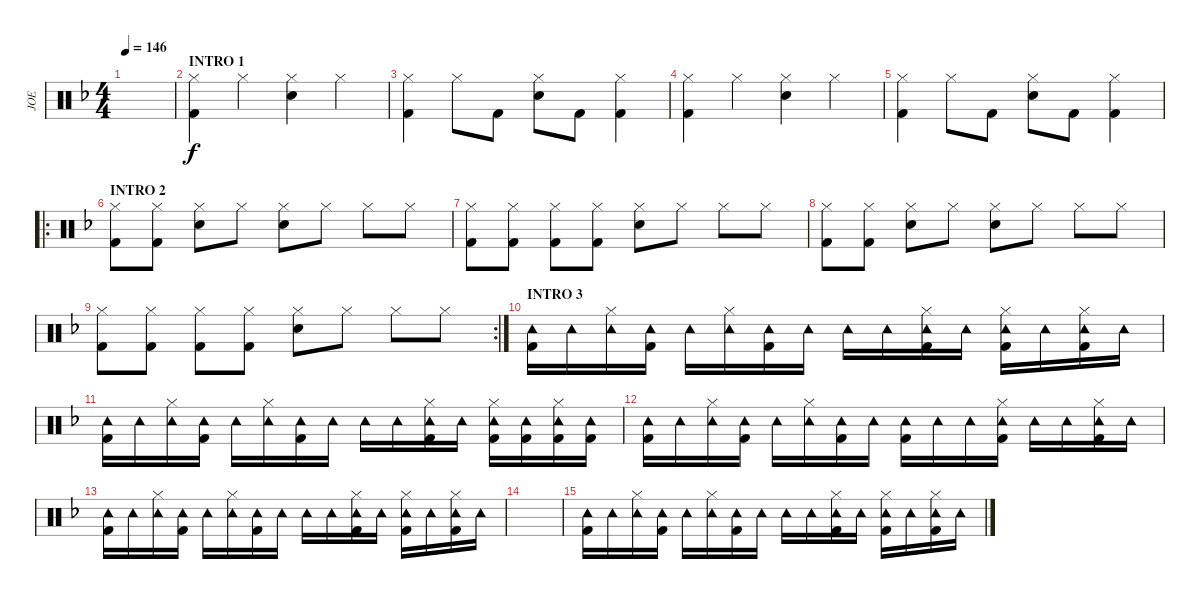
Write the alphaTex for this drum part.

\track ("JOE" "JOE") {instrument percussion}
\staff {score}
\articulation defaults
\ts (4 4)
\tempo 146
\clef neutral
\ks dminor
|
\section ("" "INTRO 1")
("Hi-Hat (closed)" "Kick (hit) 2").4 "Hi-Hat (closed)".4 ("Hi-Hat (closed)" "Snare (hit) 2").4 "Hi-Hat (closed)".4 |
("Hi-Hat (closed)" "Kick (hit) 2").4 "Hi-Hat (closed)".8 "Kick (hit) 2".8 ("Hi-Hat (closed)" "Snare (hit) 2").8 "Kick (hit) 2".8 ("Hi-Hat (closed)" "Kick (hit) 2").4 |
("Hi-Hat (closed)" "Kick (hit) 2").4 "Hi-Hat (closed)".4 ("Hi-Hat (closed)" "Snare (hit) 2").4 "Hi-Hat (closed)".4 |
("Hi-Hat (closed)" "Kick (hit) 2").4 "Hi-Hat (closed)".8 "Kick (hit) 2".8 ("Hi-Hat (closed)" "Snare (hit) 2").8 "Kick (hit) 2".8 ("Hi-Hat (closed)" "Kick (hit) 2").4 |
\ro
\section ("" "INTRO 2")
("Hi-Hat (closed)" "Kick (hit) 2").8 ("Hi-Hat (closed)" "Kick (hit) 2").8 ("Hi-Hat (closed)" "Snare (hit) 2").8 "Hi-Hat (closed)".8 ("Hi-Hat (closed)" "Snare (hit) 2").8 "Hi-Hat (closed)".8 "Hi-Hat (closed)".8 "Hi-Hat (closed)".8 |
("Hi-Hat (closed)" "Kick (hit) 2").8 ("Hi-Hat (closed)" "Kick (hit) 2").8 ("Hi-Hat (closed)" "Kick (hit) 2").8 ("Hi-Hat (closed)" "Kick (hit) 2").8 ("Hi-Hat (closed)" "Snare (hit) 2").8 "Hi-Hat (closed)".8 "Hi-Hat (closed)".8 "Hi-Hat (closed)".8 |
("Hi-Hat (closed)" "Kick (hit) 2").8 ("Hi-Hat (closed)" "Kick (hit) 2").8 ("Hi-Hat (closed)" "Snare (hit) 2").8 "Hi-Hat (closed)".8 ("Hi-Hat (closed)" "Snare (hit) 2").8 "Hi-Hat (closed)".8 "Hi-Hat (closed)".8 "Hi-Hat (closed)".8 |
\rc 2
("Hi-Hat (closed)" "Kick (hit) 2").8 ("Hi-Hat (closed)" "Kick (hit) 2").8 ("Hi-Hat (closed)" "Kick (hit) 2").8 ("Hi-Hat (closed)" "Kick (hit) 2").8 ("Hi-Hat (closed)" "Snare (hit) 2").8 "Hi-Hat (closed)".8 "Hi-Hat (closed)".8 "Hi-Hat (closed)".8 |
\section ("" "INTRO 3")
("Tambourine (hit)" "Kick (hit) 2").16 "Tambourine (hit)".16 ("Hi-Hat (closed)" "Tambourine (hit)").16 ("Tambourine (hit)" "Kick (hit) 2").16 "Tambourine (hit)".16 ("Hi-Hat (closed)" "Tambourine (hit)").16 ("Tambourine (hit)" "Kick (hit) 2").16 "Tambourine (hit)".16 "Tambourine (hit)".16 "Tambourine (hit)".16 ("Hi-Hat (closed)" "Tambourine (hit)" "Kick (hit) 2").16 "Tambourine (hit)".16 ("Hi-Hat (closed)" "Tambourine (hit)" "Kick (hit) 2").16 "Tambourine (hit)".16 ("Hi-Hat (closed)" "Tambourine (hit)" "Kick (hit) 2").16 "Tambourine (hit)".16 |
("Tambourine (hit)" "Kick (hit) 2").16 "Tambourine (hit)".16 ("Hi-Hat (closed)" "Tambourine (hit)").16 ("Tambourine (hit)" "Kick (hit) 2").16 "Tambourine (hit)".16 ("Hi-Hat (closed)" "Tambourine (hit)").16 ("Tambourine (hit)" "Kick (hit) 2").16 "Tambourine (hit)".16 "Tambourine (hit)".16 "Tambourine (hit)".16 ("Hi-Hat (closed)" "Tambourine (hit)" "Kick (hit) 2").16 "Tambourine (hit)".16 ("Hi-Hat (closed)" "Tambourine (hit)" "Kick (hit) 2").16 ("Tambourine (hit)" "Kick (hit) 2").16 ("Hi-Hat (closed)" "Tambourine (hit)" "Kick (hit) 2").16 ("Tambourine (hit)" "Kick (hit) 2").16 |
("Tambourine (hit)" "Kick (hit) 2").16 "Tambourine (hit)".16 ("Hi-Hat (closed)" "Tambourine (hit)").16 ("Tambourine (hit)" "Kick (hit) 2").16 "Tambourine (hit)".16 ("Hi-Hat (closed)" "Tambourine (hit)").16 ("Tambourine (hit)" "Kick (hit) 2").16 "Tambourine (hit)".16 ("Tambourine (hit)" "Kick (hit) 2").16 "Tambourine (hit)".16 "Tambourine (hit)".16 ("Hi-Hat (closed)" "Tambourine (hit)" "Kick (hit) 2").16 "Tambourine (hit)".16 "Tambourine (hit)".16 ("Hi-Hat (closed)" "Tambourine (hit)" "Kick (hit) 2").16 "Tambourine (hit)".16 |
("Tambourine (hit)" "Kick (hit) 2").16 "Tambourine (hit)".16 ("Hi-Hat (closed)" "Tambourine (hit)").16 ("Tambourine (hit)" "Kick (hit) 2").16 "Tambourine (hit)".16 ("Hi-Hat (closed)" "Tambourine (hit)").16 ("Tambourine (hit)" "Kick (hit) 2").16 "Tambourine (hit)".16 "Tambourine (hit)".16 "Tambourine (hit)".16 ("Hi-Hat (closed)" "Tambourine (hit)" "Kick (hit) 2").16 "Tambourine (hit)".16 ("Hi-Hat (closed)" "Tambourine (hit)" "Kick (hit) 2").16 "Tambourine (hit)".16 ("Hi-Hat (closed)" "Tambourine (hit)" "Kick (hit) 2").16 "Tambourine (hit)".16 |
|
("Tambourine (hit)" "Kick (hit) 2").16 "Tambourine (hit)".16 ("Hi-Hat (closed)" "Tambourine (hit)").16 ("Tambourine (hit)" "Kick (hit) 2").16 "Tambourine (hit)".16 ("Hi-Hat (closed)" "Tambourine (hit)").16 ("Tambourine (hit)" "Kick (hit) 2").16 "Tambourine (hit)".16 "Tambourine (hit)".16 "Tambourine (hit)".16 ("Hi-Hat (closed)" "Tambourine (hit)" "Kick (hit) 2").16 "Tambourine (hit)".16 ("Hi-Hat (closed)" "Tambourine (hit)" "Kick (hit) 2").16 "Tambourine (hit)".16 ("Hi-Hat (closed)" "Tambourine (hit)" "Kick (hit) 2").16 "Tambourine (hit)".16
